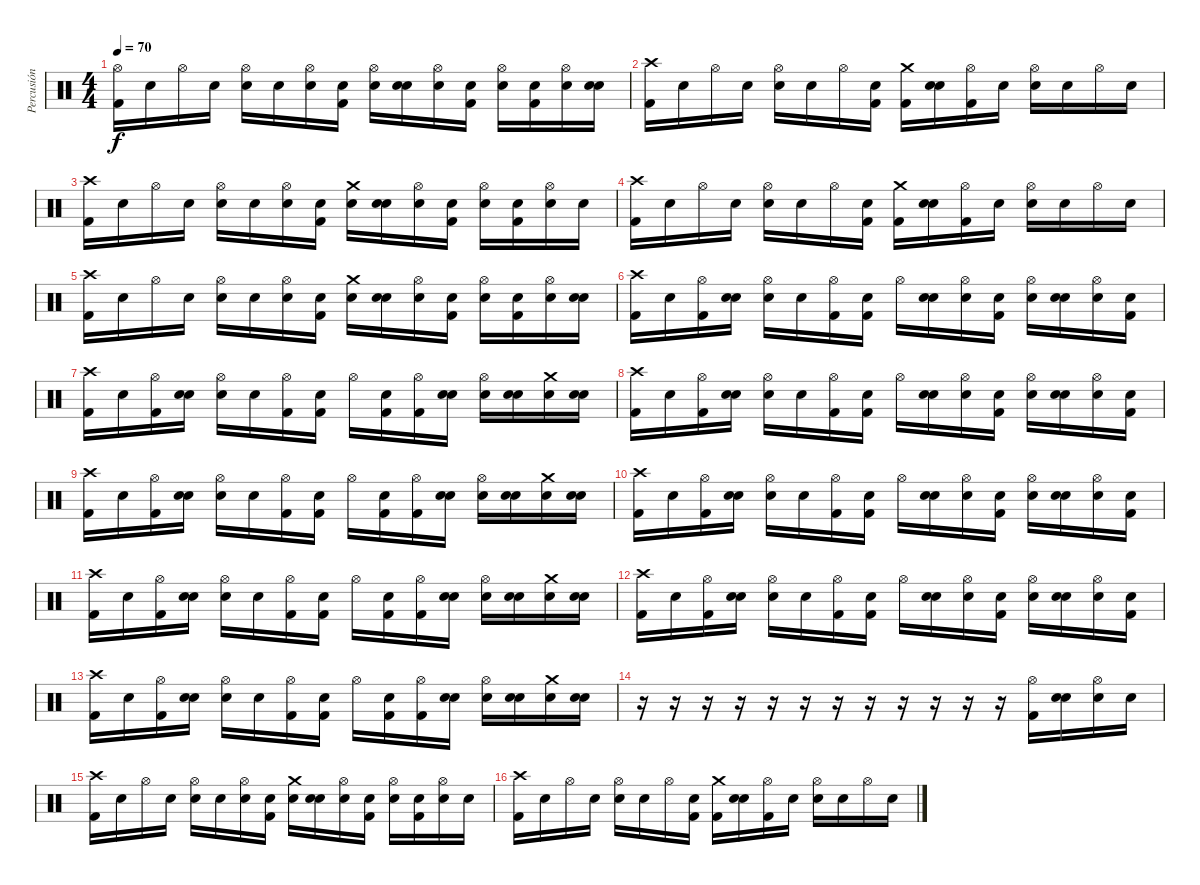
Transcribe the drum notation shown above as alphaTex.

\track ("Percusión" "Percusión") {instrument percussion}
\staff {score}
\articulation defaults
\ts (4 4)
\tempo 70
\clef neutral
\ks c
("Hi-Hat (open)" "Kick (hit) 2").16{dy f} "Snare (hit)".16 "Hi-Hat (open)".16 "Snare (hit)".16 ("Hi-Hat (open)" "Electric Snare (hit)").16 "Snare (hit)".16 ("Hi-Hat (open)" "Snare (hit)").16 ("Snare (hit)" "Kick (hit) 2").16 ("Hi-Hat (open)" "Snare (hit)").16 ("Snare (hit)" "Electric Snare (hit)").16 ("Hi-Hat (open)" "Snare (hit)").16 ("Snare (hit)" "Kick (hit) 2").16 ("Hi-Hat (open)" "Electric Snare (hit)").16 ("Snare (hit)" "Kick (hit) 2").16 ("Hi-Hat (open)" "Electric Snare (hit)").16 ("Snare (hit)" "Electric Snare (hit)").16 |
("Crash high (hit)" "Kick (hit) 2").16 "Snare (hit)".16 "Hi-Hat (open)".16 "Snare (hit)".16 ("Hi-Hat (open)" "Electric Snare (hit)").16 "Snare (hit)".16 "Hi-Hat (open)".16 ("Snare (hit)" "Kick (hit) 2").16 ("Crash medium (hit)" "Kick (hit) 2").16 ("Snare (hit)" "Snare (hit)").16 ("Hi-Hat (open)" "Kick (hit) 2").16 "Snare (hit)".16 ("Hi-Hat (open)" "Electric Snare (hit)").16 "Snare (hit)".16 "Hi-Hat (open)".16 "Snare (hit)".16 |
("Crash high (hit)" "Kick (hit) 2").16 "Snare (hit)".16 "Hi-Hat (open)".16 "Snare (hit)".16 ("Hi-Hat (open)" "Electric Snare (hit)").16 "Snare (hit)".16 ("Hi-Hat (open)" "Snare (hit)").16 ("Snare (hit)" "Kick (hit) 2").16 ("Crash medium (hit)" "Snare (hit)").16 ("Snare (hit)" "Electric Snare (hit)").16 ("Hi-Hat (open)" "Snare (hit)").16 ("Snare (hit)" "Kick (hit) 2").16 ("Hi-Hat (open)" "Electric Snare (hit)").16 ("Snare (hit)" "Kick (hit) 2").16 ("Hi-Hat (open)" "Snare (hit)").16 "Snare (hit)".16 |
("Crash high (hit)" "Kick (hit) 2").16 "Snare (hit)".16 "Hi-Hat (open)".16 "Snare (hit)".16 ("Hi-Hat (open)" "Electric Snare (hit)").16 "Snare (hit)".16 "Hi-Hat (open)".16 ("Snare (hit)" "Kick (hit) 2").16 ("Crash medium (hit)" "Kick (hit) 2").16 ("Snare (hit)" "Snare (hit)").16 ("Hi-Hat (open)" "Kick (hit) 2").16 "Snare (hit)".16 ("Hi-Hat (open)" "Electric Snare (hit)").16 "Snare (hit)".16 "Hi-Hat (open)".16 "Snare (hit)".16 |
("Crash high (hit)" "Kick (hit) 2").16 "Snare (hit)".16 "Hi-Hat (open)".16 "Snare (hit)".16 ("Hi-Hat (open)" "Electric Snare (hit)").16 "Snare (hit)".16 ("Hi-Hat (open)" "Snare (hit)").16 ("Snare (hit)" "Kick (hit) 2").16 ("Crash medium (hit)" "Snare (hit)").16 ("Snare (hit)" "Electric Snare (hit)").16 ("Hi-Hat (open)" "Snare (hit)").16 ("Snare (hit)" "Kick (hit) 2").16 ("Hi-Hat (open)" "Electric Snare (hit)").16 ("Snare (hit)" "Kick (hit) 2").16 ("Hi-Hat (open)" "Electric Snare (hit)").16 ("Snare (hit)" "Electric Snare (hit)").16 |
("Crash high (hit)" "Kick (hit) 2").16 "Snare (hit)".16 ("Hi-Hat (open)" "Kick (hit) 2").16 ("Snare (hit)" "Snare (hit)").16 ("Hi-Hat (open)" "Electric Snare (hit)").16 "Snare (hit)".16 ("Hi-Hat (open)" "Kick (hit) 2").16 ("Snare (hit)" "Kick (hit) 2").16 "Hi-Hat (open)".16 ("Snare (hit)" "Electric Snare (hit)").16 ("Hi-Hat (open)" "Snare (hit)").16 ("Snare (hit)" "Kick (hit) 2").16 ("Hi-Hat (open)" "Electric Snare (hit)").16 ("Snare (hit)" "Electric Snare (hit)").16 ("Hi-Hat (open)" "Snare (hit)").16 ("Snare (hit)" "Kick (hit) 2").16 |
("Crash high (hit)" "Kick (hit) 2").16 "Snare (hit)".16 ("Hi-Hat (open)" "Kick (hit) 2").16 ("Snare (hit)" "Snare (hit)").16 ("Hi-Hat (open)" "Electric Snare (hit)").16 "Snare (hit)".16 ("Hi-Hat (open)" "Kick (hit) 2").16 ("Snare (hit)" "Kick (hit) 2").16 "Hi-Hat (open)".16 ("Snare (hit)" "Kick (hit) 2").16 ("Hi-Hat (open)" "Kick (hit) 2").16 ("Snare (hit)" "Snare (hit)").16 ("Hi-Hat (open)" "Electric Snare (hit)").16 ("Snare (hit)" "Electric Snare (hit)").16 ("Crash medium (hit)" "Electric Snare (hit)").16 ("Snare (hit)" "Electric Snare (hit)").16 |
("Crash high (hit)" "Kick (hit) 2").16 "Snare (hit)".16 ("Hi-Hat (open)" "Kick (hit) 2").16 ("Snare (hit)" "Snare (hit)").16 ("Hi-Hat (open)" "Electric Snare (hit)").16 "Snare (hit)".16 ("Hi-Hat (open)" "Kick (hit) 2").16 ("Snare (hit)" "Kick (hit) 2").16 "Hi-Hat (open)".16 ("Snare (hit)" "Electric Snare (hit)").16 ("Hi-Hat (open)" "Snare (hit)").16 ("Snare (hit)" "Kick (hit) 2").16 ("Hi-Hat (open)" "Electric Snare (hit)").16 ("Snare (hit)" "Electric Snare (hit)").16 ("Hi-Hat (open)" "Snare (hit)").16 ("Snare (hit)" "Kick (hit) 2").16 |
("Crash high (hit)" "Kick (hit) 2").16 "Snare (hit)".16 ("Hi-Hat (open)" "Kick (hit) 2").16 ("Snare (hit)" "Snare (hit)").16 ("Hi-Hat (open)" "Electric Snare (hit)").16 "Snare (hit)".16 ("Hi-Hat (open)" "Kick (hit) 2").16 ("Snare (hit)" "Kick (hit) 2").16 "Hi-Hat (open)".16 ("Snare (hit)" "Kick (hit) 2").16 ("Hi-Hat (open)" "Kick (hit) 2").16 ("Snare (hit)" "Snare (hit)").16 ("Hi-Hat (open)" "Electric Snare (hit)").16 ("Snare (hit)" "Electric Snare (hit)").16 ("Crash medium (hit)" "Electric Snare (hit)").16 ("Snare (hit)" "Electric Snare (hit)").16 |
("Crash high (hit)" "Kick (hit) 2").16 "Snare (hit)".16 ("Hi-Hat (open)" "Kick (hit) 2").16 ("Snare (hit)" "Snare (hit)").16 ("Hi-Hat (open)" "Electric Snare (hit)").16 "Snare (hit)".16 ("Hi-Hat (open)" "Kick (hit) 2").16 ("Snare (hit)" "Kick (hit) 2").16 "Hi-Hat (open)".16 ("Snare (hit)" "Electric Snare (hit)").16 ("Hi-Hat (open)" "Snare (hit)").16 ("Snare (hit)" "Kick (hit) 2").16 ("Hi-Hat (open)" "Electric Snare (hit)").16 ("Snare (hit)" "Electric Snare (hit)").16 ("Hi-Hat (open)" "Snare (hit)").16 ("Snare (hit)" "Kick (hit) 2").16 |
("Crash high (hit)" "Kick (hit) 2").16 "Snare (hit)".16 ("Hi-Hat (open)" "Kick (hit) 2").16 ("Snare (hit)" "Snare (hit)").16 ("Hi-Hat (open)" "Electric Snare (hit)").16 "Snare (hit)".16 ("Hi-Hat (open)" "Kick (hit) 2").16 ("Snare (hit)" "Kick (hit) 2").16 "Hi-Hat (open)".16 ("Snare (hit)" "Kick (hit) 2").16 ("Hi-Hat (open)" "Kick (hit) 2").16 ("Snare (hit)" "Snare (hit)").16 ("Hi-Hat (open)" "Electric Snare (hit)").16 ("Snare (hit)" "Electric Snare (hit)").16 ("Crash medium (hit)" "Electric Snare (hit)").16 ("Snare (hit)" "Electric Snare (hit)").16 |
("Crash high (hit)" "Kick (hit) 2").16 "Snare (hit)".16 ("Hi-Hat (open)" "Kick (hit) 2").16 ("Snare (hit)" "Snare (hit)").16 ("Hi-Hat (open)" "Electric Snare (hit)").16 "Snare (hit)".16 ("Hi-Hat (open)" "Kick (hit) 2").16 ("Snare (hit)" "Kick (hit) 2").16 "Hi-Hat (open)".16 ("Snare (hit)" "Electric Snare (hit)").16 ("Hi-Hat (open)" "Snare (hit)").16 ("Snare (hit)" "Kick (hit) 2").16 ("Hi-Hat (open)" "Electric Snare (hit)").16 ("Snare (hit)" "Electric Snare (hit)").16 ("Hi-Hat (open)" "Snare (hit)").16 ("Snare (hit)" "Kick (hit) 2").16 |
("Crash high (hit)" "Kick (hit) 2").16 "Snare (hit)".16 ("Hi-Hat (open)" "Kick (hit) 2").16 ("Snare (hit)" "Snare (hit)").16 ("Hi-Hat (open)" "Electric Snare (hit)").16 "Snare (hit)".16 ("Hi-Hat (open)" "Kick (hit) 2").16 ("Snare (hit)" "Kick (hit) 2").16 "Hi-Hat (open)".16 ("Snare (hit)" "Kick (hit) 2").16 ("Hi-Hat (open)" "Kick (hit) 2").16 ("Snare (hit)" "Snare (hit)").16 ("Hi-Hat (open)" "Electric Snare (hit)").16 ("Snare (hit)" "Electric Snare (hit)").16 ("Crash medium (hit)" "Electric Snare (hit)").16 ("Snare (hit)" "Electric Snare (hit)").16 |
r.16 r.16 r.16 r.16 r.16 r.16 r.16 r.16 r.16 r.16 r.16 r.16 ("Hi-Hat (open)" "Kick (hit) 2").16 ("Snare (hit)" "Electric Snare (hit)").16 ("Hi-Hat (open)" "Electric Snare (hit)").16 "Snare (hit)".16 |
("Crash high (hit)" "Kick (hit) 2").16 "Snare (hit)".16 "Hi-Hat (open)".16 "Snare (hit)".16 ("Hi-Hat (open)" "Electric Snare (hit)").16 "Snare (hit)".16 ("Hi-Hat (open)" "Snare (hit)").16 ("Snare (hit)" "Kick (hit) 2").16 ("Crash medium (hit)" "Snare (hit)").16 ("Snare (hit)" "Electric Snare (hit)").16 ("Hi-Hat (open)" "Snare (hit)").16 ("Snare (hit)" "Kick (hit) 2").16 ("Hi-Hat (open)" "Electric Snare (hit)").16 ("Snare (hit)" "Kick (hit) 2").16 ("Hi-Hat (open)" "Snare (hit)").16 "Snare (hit)".16 |
("Crash high (hit)" "Kick (hit) 2").16 "Snare (hit)".16 "Hi-Hat (open)".16 "Snare (hit)".16 ("Hi-Hat (open)" "Electric Snare (hit)").16 "Snare (hit)".16 "Hi-Hat (open)".16 ("Snare (hit)" "Kick (hit) 2").16 ("Crash medium (hit)" "Kick (hit) 2").16 ("Snare (hit)" "Snare (hit)").16 ("Hi-Hat (open)" "Kick (hit) 2").16 "Snare (hit)".16 ("Hi-Hat (open)" "Electric Snare (hit)").16 "Snare (hit)".16 "Hi-Hat (open)".16 "Snare (hit)".16
